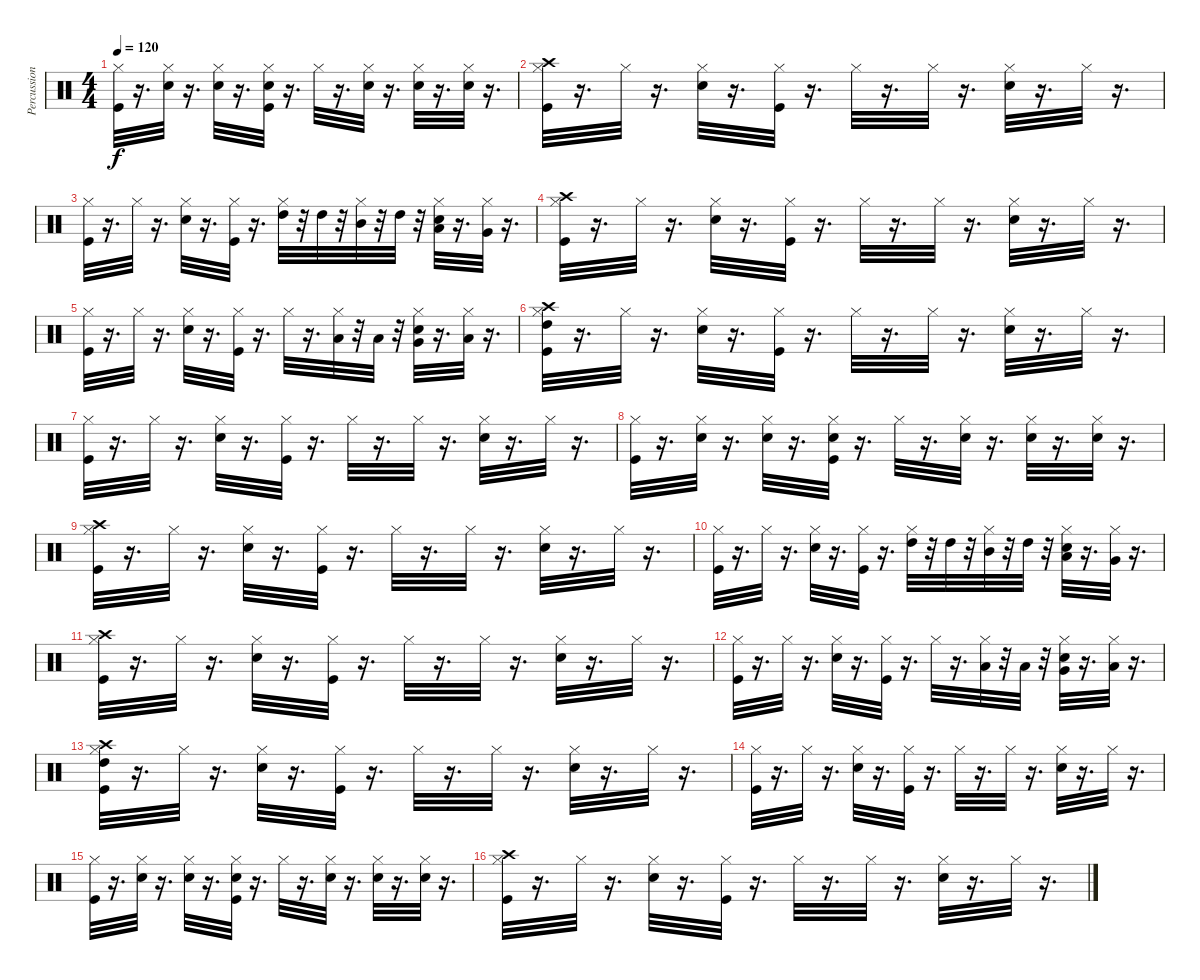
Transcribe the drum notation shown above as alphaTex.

\track ("Percussion" "Percussion") {instrument percussion}
\staff {score}
\articulation defaults
\ts (4 4)
\tempo 120
\clef neutral
\ks c
("Kick (hit)" "Hi-Hat (closed)").32{dy f} r.16{d} ("Hi-Hat (closed)" "Electric Snare (hit)").32 r.16{d} ("Electric Snare (hit)" "Hi-Hat (closed)").32 r.16{d} ("Kick (hit)" "Hi-Hat (closed)" "Electric Snare (hit)").32 r.16{d} "Hi-Hat (closed)".32 r.16{d} ("Hi-Hat (closed)" "Electric Snare (hit)").32 r.16{d} ("Electric Snare (hit)" "Hi-Hat (closed)").32 r.16{d} ("Hi-Hat (closed)" "Electric Snare (hit)").32 r.16{d} |
("Kick (hit)" "Hi-Hat (closed)" "Crash high (hit)").32 r.16{d} "Hi-Hat (closed)".32 r.16{d} ("Electric Snare (hit)" "Hi-Hat (closed)").32 r.16{d} ("Kick (hit)" "Hi-Hat (closed)").32 r.16{d} "Hi-Hat (closed)".32 r.16{d} "Hi-Hat (closed)".32 r.16{d} ("Electric Snare (hit)" "Hi-Hat (closed)").32 r.16{d} "Hi-Hat (closed)".32 r.16{d} |
("Kick (hit)" "Hi-Hat (closed)").32 r.16{d} "Hi-Hat (closed)".32 r.16{d} ("Electric Snare (hit)" "Hi-Hat (closed)").32 r.16{d} ("Kick (hit)" "Hi-Hat (closed)").32 r.16{d} ("Hi-Hat (closed)" "High Tom (hit)").32 r.32 "High Tom (hit)".32 r.32 ("Hi-Hat (closed)" "Mid Tom (hit)").32 r.32 "High Tom (hit)".32 r.32 ("Electric Snare (hit)" "Hi-Hat (closed)" "Low Tom (hit)").32 r.16{d} ("Hi-Hat (closed)" "Very Low Tom (hit)").32 r.16{d} |
("Kick (hit)" "Hi-Hat (closed)" "Crash high (hit)").32 r.16{d} "Hi-Hat (closed)".32 r.16{d} ("Electric Snare (hit)" "Hi-Hat (closed)").32 r.16{d} ("Kick (hit)" "Hi-Hat (closed)").32 r.16{d} "Hi-Hat (closed)".32 r.16{d} "Hi-Hat (closed)".32 r.16{d} ("Electric Snare (hit)" "Hi-Hat (closed)").32 r.16{d} "Hi-Hat (closed)".32 r.16{d} |
("Kick (hit)" "Hi-Hat (closed)").32 r.16{d} "Hi-Hat (closed)".32 r.16{d} ("Electric Snare (hit)" "Hi-Hat (closed)").32 r.16{d} ("Kick (hit)" "Hi-Hat (closed)").32 r.16{d} "Hi-Hat (closed)".32 r.16{d} ("Hi-Hat (closed)" "Low Tom (hit)").32 r.32 "Low Tom (hit)".32 r.32 ("Electric Snare (hit)" "Hi-Hat (closed)" "Very Low Tom (hit)").32 r.16{d} ("Hi-Hat (closed)" "Low Floor Tom (hit)").32 r.16{d} |
("Kick (hit)" "Hi-Hat (closed)" "High Tom (hit)" "Crash high (hit)").32 r.16{d} "Hi-Hat (closed)".32 r.16{d} ("Electric Snare (hit)" "Hi-Hat (closed)").32 r.16{d} ("Kick (hit)" "Hi-Hat (closed)").32 r.16{d} "Hi-Hat (closed)".32 r.16{d} "Hi-Hat (closed)".32 r.16{d} ("Electric Snare (hit)" "Hi-Hat (closed)").32 r.16{d} "Hi-Hat (closed)".32 r.16{d} |
("Kick (hit)" "Hi-Hat (closed)").32 r.16{d} "Hi-Hat (closed)".32 r.16{d} ("Electric Snare (hit)" "Hi-Hat (closed)").32 r.16{d} ("Kick (hit)" "Hi-Hat (closed)").32 r.16{d} "Hi-Hat (closed)".32 r.16{d} "Hi-Hat (closed)".32 r.16{d} ("Electric Snare (hit)" "Hi-Hat (closed)").32 r.16{d} "Hi-Hat (closed)".32 r.16{d} |
("Kick (hit)" "Hi-Hat (closed)").32 r.16{d} ("Hi-Hat (closed)" "Electric Snare (hit)").32 r.16{d} ("Electric Snare (hit)" "Hi-Hat (closed)").32 r.16{d} ("Kick (hit)" "Hi-Hat (closed)" "Electric Snare (hit)").32 r.16{d} "Hi-Hat (closed)".32 r.16{d} ("Hi-Hat (closed)" "Electric Snare (hit)").32 r.16{d} ("Electric Snare (hit)" "Hi-Hat (closed)").32 r.16{d} ("Hi-Hat (closed)" "Electric Snare (hit)").32 r.16{d} |
("Kick (hit)" "Hi-Hat (closed)" "Crash high (hit)").32 r.16{d} "Hi-Hat (closed)".32 r.16{d} ("Electric Snare (hit)" "Hi-Hat (closed)").32 r.16{d} ("Kick (hit)" "Hi-Hat (closed)").32 r.16{d} "Hi-Hat (closed)".32 r.16{d} "Hi-Hat (closed)".32 r.16{d} ("Electric Snare (hit)" "Hi-Hat (closed)").32 r.16{d} "Hi-Hat (closed)".32 r.16{d} |
("Kick (hit)" "Hi-Hat (closed)").32 r.16{d} "Hi-Hat (closed)".32 r.16{d} ("Electric Snare (hit)" "Hi-Hat (closed)").32 r.16{d} ("Kick (hit)" "Hi-Hat (closed)").32 r.16{d} ("Hi-Hat (closed)" "High Tom (hit)").32 r.32 "High Tom (hit)".32 r.32 ("Hi-Hat (closed)" "Mid Tom (hit)").32 r.32 "High Tom (hit)".32 r.32 ("Electric Snare (hit)" "Hi-Hat (closed)" "Low Tom (hit)").32 r.16{d} ("Hi-Hat (closed)" "Very Low Tom (hit)").32 r.16{d} |
("Kick (hit)" "Hi-Hat (closed)" "Crash high (hit)").32 r.16{d} "Hi-Hat (closed)".32 r.16{d} ("Electric Snare (hit)" "Hi-Hat (closed)").32 r.16{d} ("Kick (hit)" "Hi-Hat (closed)").32 r.16{d} "Hi-Hat (closed)".32 r.16{d} "Hi-Hat (closed)".32 r.16{d} ("Electric Snare (hit)" "Hi-Hat (closed)").32 r.16{d} "Hi-Hat (closed)".32 r.16{d} |
("Kick (hit)" "Hi-Hat (closed)").32 r.16{d} "Hi-Hat (closed)".32 r.16{d} ("Electric Snare (hit)" "Hi-Hat (closed)").32 r.16{d} ("Kick (hit)" "Hi-Hat (closed)").32 r.16{d} "Hi-Hat (closed)".32 r.16{d} ("Hi-Hat (closed)" "Low Tom (hit)").32 r.32 "Low Tom (hit)".32 r.32 ("Electric Snare (hit)" "Hi-Hat (closed)" "Very Low Tom (hit)").32 r.16{d} ("Hi-Hat (closed)" "Low Floor Tom (hit)").32 r.16{d} |
("Kick (hit)" "Hi-Hat (closed)" "High Tom (hit)" "Crash high (hit)").32 r.16{d} "Hi-Hat (closed)".32 r.16{d} ("Electric Snare (hit)" "Hi-Hat (closed)").32 r.16{d} ("Kick (hit)" "Hi-Hat (closed)").32 r.16{d} "Hi-Hat (closed)".32 r.16{d} "Hi-Hat (closed)".32 r.16{d} ("Electric Snare (hit)" "Hi-Hat (closed)").32 r.16{d} "Hi-Hat (closed)".32 r.16{d} |
("Kick (hit)" "Hi-Hat (closed)").32 r.16{d} "Hi-Hat (closed)".32 r.16{d} ("Electric Snare (hit)" "Hi-Hat (closed)").32 r.16{d} ("Kick (hit)" "Hi-Hat (closed)").32 r.16{d} "Hi-Hat (closed)".32 r.16{d} "Hi-Hat (closed)".32 r.16{d} ("Electric Snare (hit)" "Hi-Hat (closed)").32 r.16{d} "Hi-Hat (closed)".32 r.16{d} |
("Kick (hit)" "Hi-Hat (closed)").32 r.16{d} ("Hi-Hat (closed)" "Electric Snare (hit)").32 r.16{d} ("Electric Snare (hit)" "Hi-Hat (closed)").32 r.16{d} ("Kick (hit)" "Hi-Hat (closed)" "Electric Snare (hit)").32 r.16{d} "Hi-Hat (closed)".32 r.16{d} ("Hi-Hat (closed)" "Electric Snare (hit)").32 r.16{d} ("Electric Snare (hit)" "Hi-Hat (closed)").32 r.16{d} ("Hi-Hat (closed)" "Electric Snare (hit)").32 r.16{d} |
("Kick (hit)" "Hi-Hat (closed)" "Crash high (hit)").32 r.16{d} "Hi-Hat (closed)".32 r.16{d} ("Electric Snare (hit)" "Hi-Hat (closed)").32 r.16{d} ("Kick (hit)" "Hi-Hat (closed)").32 r.16{d} "Hi-Hat (closed)".32 r.16{d} "Hi-Hat (closed)".32 r.16{d} ("Electric Snare (hit)" "Hi-Hat (closed)").32 r.16{d} "Hi-Hat (closed)".32 r.16{d}
